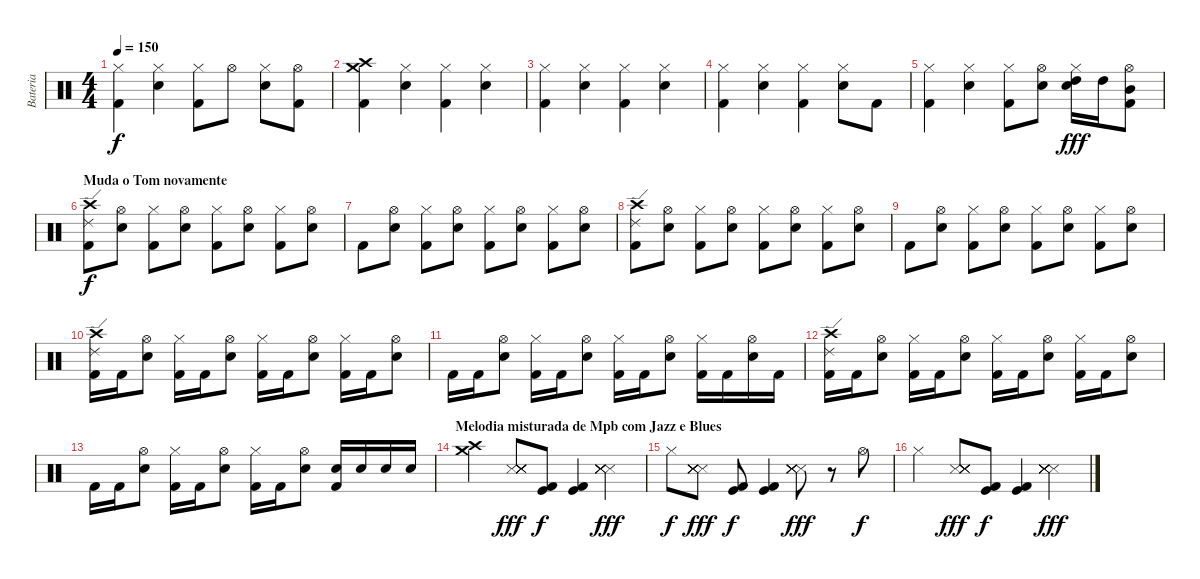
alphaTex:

\track ("Bateria" "Bateria") {instrument percussion}
\staff {score}
\articulation defaults
\ts (4 4)
\tempo 150
\clef neutral
\ks c
("Kick (hit) 2" "Hi-Hat (closed)").4{dy f} ("Metronome (bell)" "Hi-Hat (closed)").4 ("Kick (hit) 2" "Hi-Hat (closed)").8 "Hi-Hat (open)".8 ("Metronome (bell)" "Hi-Hat (closed)").8 ("Kick (hit) 2" "Hi-Hat (open)").8 |
("Kick (hit) 2" "Crash high (hit)" "Crash medium (hit)").4 ("Metronome (bell)" "Hi-Hat (closed)").4 ("Kick (hit) 2" "Hi-Hat (closed)").4 ("Metronome (bell)" "Hi-Hat (closed)").4 |
("Kick (hit) 2" "Hi-Hat (closed)").4 ("Metronome (bell)" "Hi-Hat (closed)").4 ("Kick (hit) 2" "Hi-Hat (closed)").4 ("Metronome (bell)" "Hi-Hat (closed)").4 |
("Kick (hit) 2" "Hi-Hat (closed)").4 ("Metronome (bell)" "Hi-Hat (closed)").4 ("Kick (hit) 2" "Hi-Hat (closed)").4 ("Metronome (bell)" "Hi-Hat (closed)").8 "Kick (hit) 2".8 |
("Kick (hit) 2" "Hi-Hat (closed)").4 ("Metronome (bell)" "Hi-Hat (closed)").4 ("Kick (hit) 2" "Hi-Hat (closed)").8 ("Hi-Hat (open)" "Electric Snare (hit)").8 ("Metronome (bell)" "Hi-Hat (closed)" "High Tom (hit)").16{dy fff} "High Tom (hit)".16 ("Kick (hit) 2" "Hi-Hat (open)" "Mid Tom (hit)").8 |
\section ("" "Muda o Tom novamente")
("Kick (hit) 2" "Ride (edge) 2" "Crash high (hit)").8{dy f} ("Metronome (bell)" "Hi-Hat (open)").8 ("Kick (hit) 2" "Hi-Hat (closed)").8 ("Metronome (bell)" "Hi-Hat (open)").8 ("Kick (hit) 2" "Hi-Hat (closed)").8 ("Metronome (bell)" "Hi-Hat (open)").8 ("Kick (hit) 2" "Hi-Hat (closed)").8 ("Metronome (bell)" "Hi-Hat (open)").8 |
"Kick (hit) 2".8 ("Metronome (bell)" "Hi-Hat (open)").8 ("Kick (hit) 2" "Hi-Hat (closed)").8 ("Metronome (bell)" "Hi-Hat (open)").8 ("Kick (hit) 2" "Hi-Hat (closed)").8 ("Metronome (bell)" "Hi-Hat (open)").8 ("Kick (hit) 2" "Hi-Hat (closed)").8 ("Metronome (bell)" "Hi-Hat (open)").8 |
("Kick (hit) 2" "Ride (edge) 2" "Crash high (hit)").8 ("Metronome (bell)" "Hi-Hat (open)").8 ("Kick (hit) 2" "Hi-Hat (closed)").8 ("Metronome (bell)" "Hi-Hat (open)").8 ("Kick (hit) 2" "Hi-Hat (closed)").8 ("Metronome (bell)" "Hi-Hat (open)").8 ("Kick (hit) 2" "Hi-Hat (closed)").8 ("Metronome (bell)" "Hi-Hat (open)").8 |
"Kick (hit) 2".8 ("Metronome (bell)" "Hi-Hat (open)").8 ("Kick (hit) 2" "Hi-Hat (closed)").8 ("Metronome (bell)" "Hi-Hat (open)").8 ("Kick (hit) 2" "Hi-Hat (closed)").8 ("Metronome (bell)" "Hi-Hat (open)").8 ("Kick (hit) 2" "Hi-Hat (closed)").8 ("Metronome (bell)" "Hi-Hat (open)").8 |
("Kick (hit) 2" "Ride (edge) 2" "Crash high (hit)").16 "Kick (hit) 2".16 ("Metronome (bell)" "Hi-Hat (open)").8 ("Kick (hit) 2" "Hi-Hat (closed)").16 "Kick (hit) 2".16 ("Metronome (bell)" "Hi-Hat (open)").8 ("Kick (hit) 2" "Hi-Hat (closed)").16 "Kick (hit) 2".16 ("Metronome (bell)" "Hi-Hat (open)").8 ("Kick (hit) 2" "Hi-Hat (closed)").16 "Kick (hit) 2".16 ("Metronome (bell)" "Hi-Hat (open)").8 |
"Kick (hit) 2".16 "Kick (hit) 2".16 ("Metronome (bell)" "Hi-Hat (open)").8 ("Kick (hit) 2" "Hi-Hat (closed)").16 "Kick (hit) 2".16 ("Metronome (bell)" "Hi-Hat (open)").8 ("Kick (hit) 2" "Hi-Hat (closed)").16 "Kick (hit) 2".16 ("Metronome (bell)" "Hi-Hat (open)").8 ("Kick (hit) 2" "Hi-Hat (closed)").16 "Kick (hit) 2".16 ("Metronome (bell)" "Hi-Hat (open)").16 "Kick (hit) 2".16 |
("Kick (hit) 2" "Ride (edge) 2" "Crash high (hit)").16 "Kick (hit) 2".16 ("Metronome (bell)" "Hi-Hat (open)").8 ("Kick (hit) 2" "Hi-Hat (closed)").16 "Kick (hit) 2".16 ("Metronome (bell)" "Hi-Hat (open)").8 ("Kick (hit) 2" "Hi-Hat (closed)").16 "Kick (hit) 2".16 ("Metronome (bell)" "Hi-Hat (open)").8 ("Kick (hit) 2" "Hi-Hat (closed)").16 "Kick (hit) 2".16 ("Metronome (bell)" "Hi-Hat (open)").8 |
"Kick (hit) 2".16 "Kick (hit) 2".16 ("Metronome (bell)" "Hi-Hat (open)").8 ("Kick (hit) 2" "Hi-Hat (closed)").16 "Kick (hit) 2".16 ("Metronome (bell)" "Hi-Hat (open)").8 ("Kick (hit) 2" "Hi-Hat (closed)").16 "Kick (hit) 2".16 ("Metronome (bell)" "Hi-Hat (open)").8 ("Kick (hit) 2" "Metronome (bell)").16 "Metronome (bell)".16 "Metronome (bell)".16 "Metronome (bell)".16 |
\section ("" "Melodia misturada de Mpb com Jazz e Blues")
("Crash high (hit)" "Crash medium (hit)").4 ("Snare (side stick) 3" "Snare (side stick) 3" "Snare (side stick) 3" "Snare (side stick) 3" "Snare (side stick) 3" "Snare (side stick) 3").8{dy fff} ("Kick (hit) 2" "Kick (hit)").8{dy f} ("Kick (hit) 2" "Kick (hit)").4 ("Snare (side stick) 3" "Snare (side stick) 3" "Snare (side stick) 3" "Snare (side stick) 3" "Snare (side stick) 3" "Snare (side stick) 3").4{dy fff} |
"Hi-Hat (closed)".8{dy f} ("Snare (side stick) 3" "Snare (side stick) 3" "Snare (side stick) 3" "Snare (side stick) 3" "Snare (side stick) 3" "Snare (side stick) 3").8{dy fff} ("Kick (hit) 2" "Kick (hit)").8{dy f} ("Kick (hit) 2" "Kick (hit)").4 ("Snare (side stick) 3" "Snare (side stick) 3" "Snare (side stick) 3" "Snare (side stick) 3" "Snare (side stick) 3" "Snare (side stick) 3").8{dy fff} r.8 "Hi-Hat (open)".8{dy f} |
"Hi-Hat (closed)".4 ("Snare (side stick) 3" "Snare (side stick) 3" "Snare (side stick) 3" "Snare (side stick) 3" "Snare (side stick) 3" "Snare (side stick) 3").8{dy fff} ("Kick (hit) 2" "Kick (hit)").8{dy f} ("Kick (hit) 2" "Kick (hit)").4 ("Snare (side stick) 3" "Snare (side stick) 3" "Snare (side stick) 3" "Snare (side stick) 3" "Snare (side stick) 3" "Snare (side stick) 3").4{dy fff}
